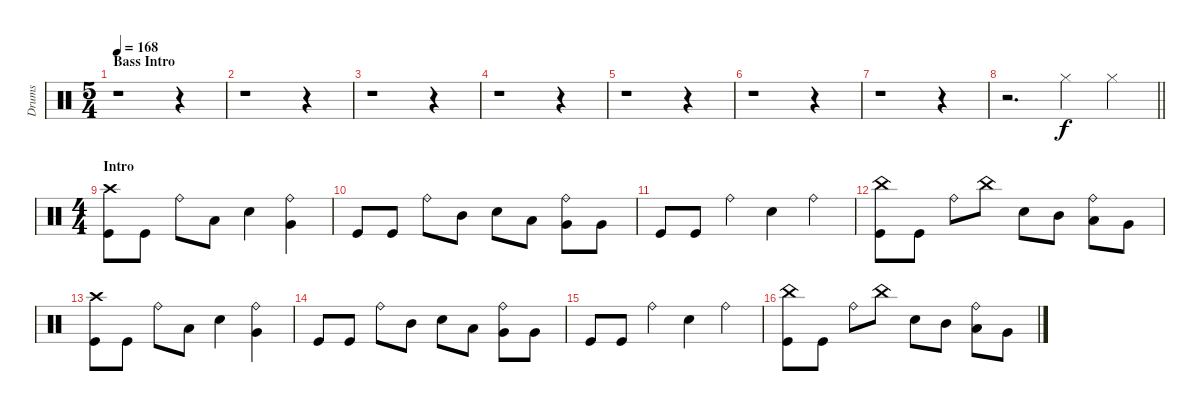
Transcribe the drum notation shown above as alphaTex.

\track ("Drums" "Drums") {instrument percussion}
\staff {score}
\articulation defaults
\ts (5 4)
\section ("" "Bass Intro")
\tempo 168
\clef neutral
\ks c
r.1{dy f} r.4 |
r.1 r.4 |
r.1 r.4 |
r.1 r.4 |
r.1 r.4 |
r.1 r.4 |
r.1 r.4 |
\barLineRight lightlight
r.2{d} "Hi-Hat (closed)".4 "Hi-Hat (closed)".4 |
\ts (4 4)
\section ("" "Intro")
("Crash high (hit)" "Kick (hit)").8 "Kick (hit)".8 "Ride (bell)".8 "Low Tom (hit)".8 "Electric Snare (hit)".4 ("Ride (bell)" "Very Low Tom (hit)").4 |
"Kick (hit)".8 "Kick (hit)".8 "Ride (bell)".8 "Mid Tom (hit)".8 "Electric Snare (hit)".8 "Low Tom (hit)".8 ("Ride (bell)" "Very Low Tom (hit)").8 "Very Low Tom (hit)".8 |
"Kick (hit)".8 "Kick (hit)".8 "Ride (bell)".4 "Electric Snare (hit)".4 "Ride (bell)".4 |
("China (hit)" "Kick (hit)").8 "Kick (hit)".8 "Ride (bell)".8 "China (hit)".8 "Electric Snare (hit)".8 "Mid Tom (hit)".8 ("Ride (bell)" "Low Tom (hit)").8 "Very Low Tom (hit)".8 |
("Crash high (hit)" "Kick (hit)").8 "Kick (hit)".8 "Ride (bell)".8 "Low Tom (hit)".8 "Electric Snare (hit)".4 ("Ride (bell)" "Very Low Tom (hit)").4 |
"Kick (hit)".8 "Kick (hit)".8 "Ride (bell)".8 "Mid Tom (hit)".8 "Electric Snare (hit)".8 "Low Tom (hit)".8 ("Ride (bell)" "Very Low Tom (hit)").8 "Very Low Tom (hit)".8 |
"Kick (hit)".8 "Kick (hit)".8 "Ride (bell)".4 "Electric Snare (hit)".4 "Ride (bell)".4 |
("China (hit)" "Kick (hit)").8 "Kick (hit)".8 "Ride (bell)".8 "China (hit)".8 "Electric Snare (hit)".8 "Mid Tom (hit)".8 ("Ride (bell)" "Low Tom (hit)").8 "Very Low Tom (hit)".8
